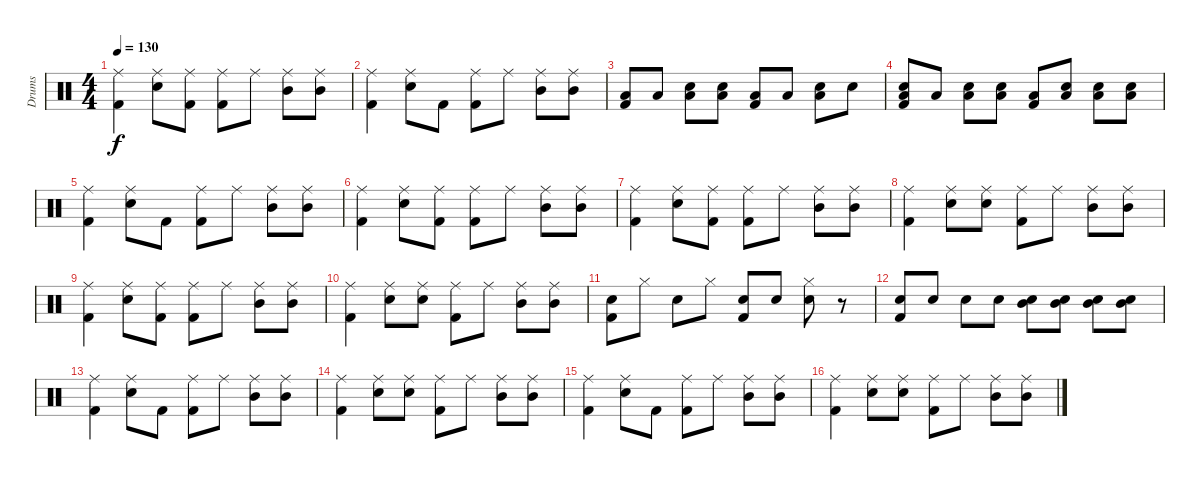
\track ("Drums" "Drums") {instrument percussion}
\staff {score}
\articulation defaults
\ts (4 4)
\tempo 130
\clef neutral
\ks c
("Ride (middle)" "Kick (hit) 2").4{dy f} ("Ride (middle)" "Snare (hit) 2").8 ("Ride (middle)" "Kick (hit) 2").8 ("Ride (middle)" "Kick (hit) 2").8 "Ride (middle)".8 ("Ride (middle)" "Mid Tom (hit)").8 ("Ride (middle)" "Mid Tom (hit)").8 |
("Ride (middle)" "Kick (hit) 2").4 ("Ride (middle)" "Snare (hit) 2").8 "Kick (hit) 2".8 ("Ride (middle)" "Kick (hit) 2").8 "Ride (middle)".8 ("Ride (middle)" "Mid Tom (hit)").8 ("Ride (middle)" "Mid Tom (hit)").8 |
("Low Tom (hit)" "Kick (hit) 2").8 "Low Tom (hit)".8 ("Low Tom (hit)" "Snare (hit) 2").8 ("Low Tom (hit)" "Snare (hit) 2").8 ("Low Tom (hit)" "Kick (hit) 2").8 "Low Tom (hit)".8 ("Low Tom (hit)" "Snare (hit) 2").8 "Snare (hit) 2".8 |
("Low Tom (hit)" "Snare (hit) 2" "Kick (hit) 2").8 "Low Tom (hit)".8 ("Low Tom (hit)" "Snare (hit) 2").8 ("Low Tom (hit)" "Snare (hit) 2").8 ("Low Tom (hit)" "Kick (hit) 2").8 ("Low Tom (hit)" "Snare (hit) 2").8 ("Low Tom (hit)" "Snare (hit) 2").8 ("Low Tom (hit)" "Snare (hit) 2").8 |
("Ride (middle)" "Kick (hit) 2").4 ("Ride (middle)" "Snare (hit) 2").8 "Kick (hit) 2".8 ("Ride (middle)" "Kick (hit) 2").8 "Ride (middle)".8 ("Ride (middle)" "Mid Tom (hit)").8 ("Ride (middle)" "Mid Tom (hit)").8 |
("Ride (middle)" "Kick (hit) 2").4 ("Ride (middle)" "Snare (hit) 2").8 ("Ride (middle)" "Kick (hit) 2").8 ("Ride (middle)" "Kick (hit) 2").8 "Ride (middle)".8 ("Ride (middle)" "Mid Tom (hit)").8 ("Ride (middle)" "Mid Tom (hit)").8 |
("Ride (middle)" "Kick (hit) 2").4 ("Ride (middle)" "Snare (hit) 2").8 ("Ride (middle)" "Kick (hit) 2").8 ("Ride (middle)" "Kick (hit) 2").8 "Ride (middle)".8 ("Ride (middle)" "Mid Tom (hit)").8 ("Ride (middle)" "Mid Tom (hit)").8 |
("Ride (middle)" "Kick (hit) 2").4 ("Ride (middle)" "Snare (hit) 2").8 ("Ride (middle)" "Snare (hit) 2").8 ("Ride (middle)" "Kick (hit) 2").8 "Ride (middle)".8 ("Ride (middle)" "Mid Tom (hit)").8 ("Ride (middle)" "Mid Tom (hit)").8 |
("Ride (middle)" "Kick (hit) 2").4 ("Ride (middle)" "Snare (hit) 2").8 ("Ride (middle)" "Kick (hit) 2").8 ("Ride (middle)" "Kick (hit) 2").8 "Ride (middle)".8 ("Ride (middle)" "Mid Tom (hit)").8 ("Ride (middle)" "Mid Tom (hit)").8 |
("Ride (middle)" "Kick (hit) 2").4 ("Ride (middle)" "Snare (hit) 2").8 ("Ride (middle)" "Snare (hit) 2").8 ("Ride (middle)" "Kick (hit) 2").8 "Ride (middle)".8 ("Ride (middle)" "Mid Tom (hit)").8 ("Ride (middle)" "Mid Tom (hit)").8 |
("Snare (hit) 2" "Kick (hit) 2").8 "Hi-Hat (closed)".8 "Snare (hit) 2".8 "Hi-Hat (closed)".8 ("Snare (hit) 2" "Kick (hit) 2").8 "Snare (hit) 2".8 ("Hi-Hat (closed)" "Snare (hit) 2").8 r.8 |
("Snare (hit) 2" "Kick (hit) 2").8 "Snare (hit) 2".8 "Snare (hit) 2".8 "Snare (hit) 2".8 ("Mid Tom (hit)" "Snare (hit) 2").8 ("Mid Tom (hit)" "Snare (hit) 2").8 ("Mid Tom (hit)" "Snare (hit) 2").8 ("Mid Tom (hit)" "Snare (hit) 2").8 |
("Ride (middle)" "Kick (hit) 2").4 ("Ride (middle)" "Snare (hit) 2").8 "Kick (hit) 2".8 ("Ride (middle)" "Kick (hit) 2").8 "Ride (middle)".8 ("Ride (middle)" "Mid Tom (hit)").8 ("Ride (middle)" "Mid Tom (hit)").8 |
("Ride (middle)" "Kick (hit) 2").4 ("Ride (middle)" "Snare (hit) 2").8 ("Ride (middle)" "Snare (hit) 2").8 ("Ride (middle)" "Kick (hit) 2").8 "Ride (middle)".8 ("Ride (middle)" "Mid Tom (hit)").8 ("Ride (middle)" "Mid Tom (hit)").8 |
("Ride (middle)" "Kick (hit) 2").4 ("Ride (middle)" "Snare (hit) 2").8 "Kick (hit) 2".8 ("Ride (middle)" "Kick (hit) 2").8 "Ride (middle)".8 ("Ride (middle)" "Mid Tom (hit)").8 ("Ride (middle)" "Mid Tom (hit)").8 |
("Ride (middle)" "Kick (hit) 2").4 ("Ride (middle)" "Snare (hit) 2").8 ("Ride (middle)" "Snare (hit) 2").8 ("Ride (middle)" "Kick (hit) 2").8 "Ride (middle)".8 ("Ride (middle)" "Mid Tom (hit)").8 ("Ride (middle)" "Mid Tom (hit)").8
